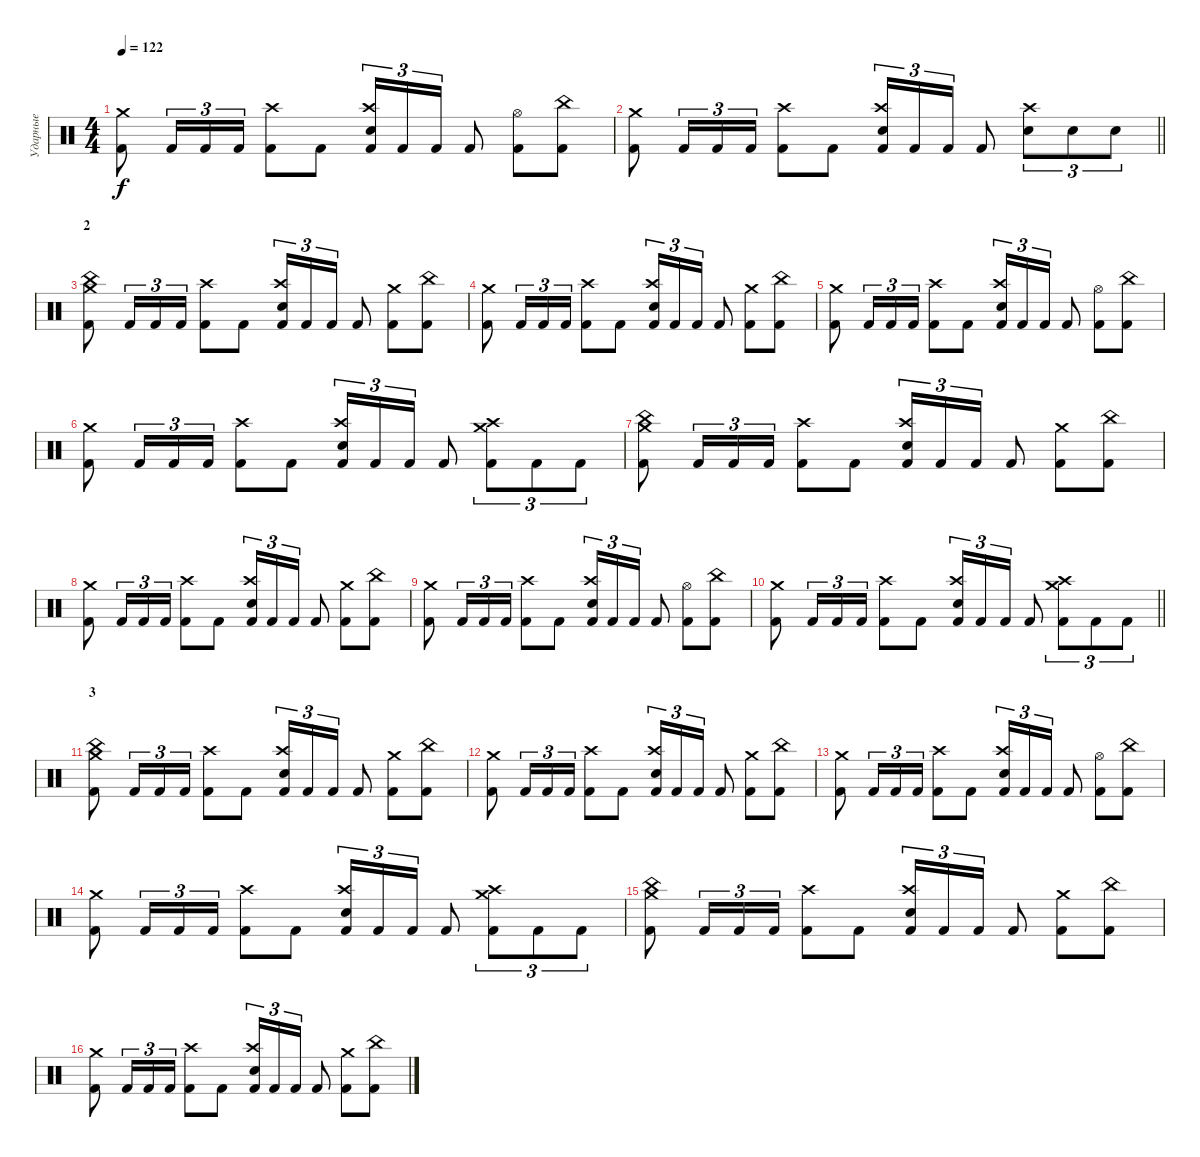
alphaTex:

\track ("Ударные" "Ударные") {instrument percussion}
\staff {score}
\articulation defaults
\ts (4 4)
\tempo 122
\clef neutral
\ks c
("Crash medium (hit)" "Kick (hit) 2").8{dy f} "Kick (hit) 2".16{tu (3 2)} "Kick (hit) 2".16{tu (3 2)} "Kick (hit) 2".16{tu (3 2)} ("Crash high (hit)" "Kick (hit) 2").8 "Kick (hit) 2".8 ("Crash high (hit)" "Electric Snare (hit)" "Kick (hit) 2").16{tu (3 2)} "Kick (hit) 2".16{tu (3 2)} "Kick (hit) 2".16{tu (3 2)} "Kick (hit) 2".8 ("Hi-Hat (open)" "Kick (hit) 2").8 ("China (hit)" "Kick (hit) 2").8 |
\barLineRight lightlight
("Crash medium (hit)" "Kick (hit) 2").8 "Kick (hit) 2".16{tu (3 2)} "Kick (hit) 2".16{tu (3 2)} "Kick (hit) 2".16{tu (3 2)} ("Crash high (hit)" "Kick (hit) 2").8 "Kick (hit) 2".8 ("Crash high (hit)" "Electric Snare (hit)" "Kick (hit) 2").16{tu (3 2)} "Kick (hit) 2".16{tu (3 2)} "Kick (hit) 2".16{tu (3 2)} "Kick (hit) 2".8 ("Crash high (hit)" "Electric Snare (hit)").8{tu (3 2)} "Electric Snare (hit)".8{tu (3 2)} "Electric Snare (hit)".8{tu (3 2)} |
\section ("" "2")
("China (hit)" "Crash medium (hit)" "Kick (hit) 2").8 "Kick (hit) 2".16{tu (3 2)} "Kick (hit) 2".16{tu (3 2)} "Kick (hit) 2".16{tu (3 2)} ("Crash high (hit)" "Kick (hit) 2").8 "Kick (hit) 2".8 ("Crash high (hit)" "Electric Snare (hit)" "Kick (hit) 2").16{tu (3 2)} "Kick (hit) 2".16{tu (3 2)} "Kick (hit) 2".16{tu (3 2)} "Kick (hit) 2".8 ("Crash medium (hit)" "Kick (hit) 2").8 ("China (hit)" "Kick (hit) 2").8 |
("Crash medium (hit)" "Kick (hit) 2").8 "Kick (hit) 2".16{tu (3 2)} "Kick (hit) 2".16{tu (3 2)} "Kick (hit) 2".16{tu (3 2)} ("Crash high (hit)" "Kick (hit) 2").8 "Kick (hit) 2".8 ("Crash high (hit)" "Electric Snare (hit)" "Kick (hit) 2").16{tu (3 2)} "Kick (hit) 2".16{tu (3 2)} "Kick (hit) 2".16{tu (3 2)} "Kick (hit) 2".8 ("Crash medium (hit)" "Kick (hit) 2").8 ("China (hit)" "Kick (hit) 2").8 |
("Crash medium (hit)" "Kick (hit) 2").8 "Kick (hit) 2".16{tu (3 2)} "Kick (hit) 2".16{tu (3 2)} "Kick (hit) 2".16{tu (3 2)} ("Crash high (hit)" "Kick (hit) 2").8 "Kick (hit) 2".8 ("Crash high (hit)" "Electric Snare (hit)" "Kick (hit) 2").16{tu (3 2)} "Kick (hit) 2".16{tu (3 2)} "Kick (hit) 2".16{tu (3 2)} "Kick (hit) 2".8 ("Hi-Hat (open)" "Kick (hit) 2").8 ("China (hit)" "Kick (hit) 2").8 |
("Crash medium (hit)" "Kick (hit) 2").8 "Kick (hit) 2".16{tu (3 2)} "Kick (hit) 2".16{tu (3 2)} "Kick (hit) 2".16{tu (3 2)} ("Crash high (hit)" "Kick (hit) 2").8 "Kick (hit) 2".8 ("Crash high (hit)" "Electric Snare (hit)" "Kick (hit) 2").16{tu (3 2)} "Kick (hit) 2".16{tu (3 2)} "Kick (hit) 2".16{tu (3 2)} "Kick (hit) 2".8 ("Crash high (hit)" "Crash medium (hit)" "Kick (hit) 2").8{tu (3 2)} "Kick (hit) 2".8{tu (3 2)} "Kick (hit) 2".8{tu (3 2)} |
("China (hit)" "Crash medium (hit)" "Kick (hit) 2").8 "Kick (hit) 2".16{tu (3 2)} "Kick (hit) 2".16{tu (3 2)} "Kick (hit) 2".16{tu (3 2)} ("Crash high (hit)" "Kick (hit) 2").8 "Kick (hit) 2".8 ("Crash high (hit)" "Electric Snare (hit)" "Kick (hit) 2").16{tu (3 2)} "Kick (hit) 2".16{tu (3 2)} "Kick (hit) 2".16{tu (3 2)} "Kick (hit) 2".8 ("Crash medium (hit)" "Kick (hit) 2").8 ("China (hit)" "Kick (hit) 2").8 |
("Crash medium (hit)" "Kick (hit) 2").8 "Kick (hit) 2".16{tu (3 2)} "Kick (hit) 2".16{tu (3 2)} "Kick (hit) 2".16{tu (3 2)} ("Crash high (hit)" "Kick (hit) 2").8 "Kick (hit) 2".8 ("Crash high (hit)" "Electric Snare (hit)" "Kick (hit) 2").16{tu (3 2)} "Kick (hit) 2".16{tu (3 2)} "Kick (hit) 2".16{tu (3 2)} "Kick (hit) 2".8 ("Crash medium (hit)" "Kick (hit) 2").8 ("China (hit)" "Kick (hit) 2").8 |
("Crash medium (hit)" "Kick (hit) 2").8 "Kick (hit) 2".16{tu (3 2)} "Kick (hit) 2".16{tu (3 2)} "Kick (hit) 2".16{tu (3 2)} ("Crash high (hit)" "Kick (hit) 2").8 "Kick (hit) 2".8 ("Crash high (hit)" "Electric Snare (hit)" "Kick (hit) 2").16{tu (3 2)} "Kick (hit) 2".16{tu (3 2)} "Kick (hit) 2".16{tu (3 2)} "Kick (hit) 2".8 ("Hi-Hat (open)" "Kick (hit) 2").8 ("China (hit)" "Kick (hit) 2").8 |
\barLineRight lightlight
("Crash medium (hit)" "Kick (hit) 2").8 "Kick (hit) 2".16{tu (3 2)} "Kick (hit) 2".16{tu (3 2)} "Kick (hit) 2".16{tu (3 2)} ("Crash high (hit)" "Kick (hit) 2").8 "Kick (hit) 2".8 ("Crash high (hit)" "Electric Snare (hit)" "Kick (hit) 2").16{tu (3 2)} "Kick (hit) 2".16{tu (3 2)} "Kick (hit) 2".16{tu (3 2)} "Kick (hit) 2".8 ("Crash high (hit)" "Crash medium (hit)" "Kick (hit) 2").8{tu (3 2)} "Kick (hit) 2".8{tu (3 2)} "Kick (hit) 2".8{tu (3 2)} |
\section ("" "3")
("China (hit)" "Crash medium (hit)" "Kick (hit) 2").8 "Kick (hit) 2".16{tu (3 2)} "Kick (hit) 2".16{tu (3 2)} "Kick (hit) 2".16{tu (3 2)} ("Crash high (hit)" "Kick (hit) 2").8 "Kick (hit) 2".8 ("Crash high (hit)" "Electric Snare (hit)" "Kick (hit) 2").16{tu (3 2)} "Kick (hit) 2".16{tu (3 2)} "Kick (hit) 2".16{tu (3 2)} "Kick (hit) 2".8 ("Crash medium (hit)" "Kick (hit) 2").8 ("China (hit)" "Kick (hit) 2").8 |
("Crash medium (hit)" "Kick (hit) 2").8 "Kick (hit) 2".16{tu (3 2)} "Kick (hit) 2".16{tu (3 2)} "Kick (hit) 2".16{tu (3 2)} ("Crash high (hit)" "Kick (hit) 2").8 "Kick (hit) 2".8 ("Crash high (hit)" "Electric Snare (hit)" "Kick (hit) 2").16{tu (3 2)} "Kick (hit) 2".16{tu (3 2)} "Kick (hit) 2".16{tu (3 2)} "Kick (hit) 2".8 ("Crash medium (hit)" "Kick (hit) 2").8 ("China (hit)" "Kick (hit) 2").8 |
("Crash medium (hit)" "Kick (hit) 2").8 "Kick (hit) 2".16{tu (3 2)} "Kick (hit) 2".16{tu (3 2)} "Kick (hit) 2".16{tu (3 2)} ("Crash high (hit)" "Kick (hit) 2").8 "Kick (hit) 2".8 ("Crash high (hit)" "Electric Snare (hit)" "Kick (hit) 2").16{tu (3 2)} "Kick (hit) 2".16{tu (3 2)} "Kick (hit) 2".16{tu (3 2)} "Kick (hit) 2".8 ("Hi-Hat (open)" "Kick (hit) 2").8 ("China (hit)" "Kick (hit) 2").8 |
("Crash medium (hit)" "Kick (hit) 2").8 "Kick (hit) 2".16{tu (3 2)} "Kick (hit) 2".16{tu (3 2)} "Kick (hit) 2".16{tu (3 2)} ("Crash high (hit)" "Kick (hit) 2").8 "Kick (hit) 2".8 ("Crash high (hit)" "Electric Snare (hit)" "Kick (hit) 2").16{tu (3 2)} "Kick (hit) 2".16{tu (3 2)} "Kick (hit) 2".16{tu (3 2)} "Kick (hit) 2".8 ("Crash high (hit)" "Crash medium (hit)" "Kick (hit) 2").8{tu (3 2)} "Kick (hit) 2".8{tu (3 2)} "Kick (hit) 2".8{tu (3 2)} |
("China (hit)" "Crash medium (hit)" "Kick (hit) 2").8 "Kick (hit) 2".16{tu (3 2)} "Kick (hit) 2".16{tu (3 2)} "Kick (hit) 2".16{tu (3 2)} ("Crash high (hit)" "Kick (hit) 2").8 "Kick (hit) 2".8 ("Crash high (hit)" "Electric Snare (hit)" "Kick (hit) 2").16{tu (3 2)} "Kick (hit) 2".16{tu (3 2)} "Kick (hit) 2".16{tu (3 2)} "Kick (hit) 2".8 ("Crash medium (hit)" "Kick (hit) 2").8 ("China (hit)" "Kick (hit) 2").8 |
("Crash medium (hit)" "Kick (hit) 2").8 "Kick (hit) 2".16{tu (3 2)} "Kick (hit) 2".16{tu (3 2)} "Kick (hit) 2".16{tu (3 2)} ("Crash high (hit)" "Kick (hit) 2").8 "Kick (hit) 2".8 ("Crash high (hit)" "Electric Snare (hit)" "Kick (hit) 2").16{tu (3 2)} "Kick (hit) 2".16{tu (3 2)} "Kick (hit) 2".16{tu (3 2)} "Kick (hit) 2".8 ("Crash medium (hit)" "Kick (hit) 2").8 ("China (hit)" "Kick (hit) 2").8
